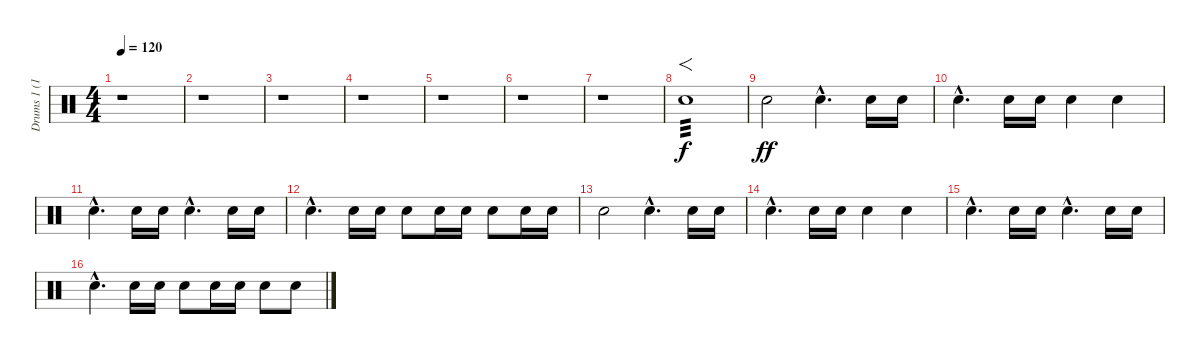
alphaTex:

\track ("Drums 1 (16)" "Drums 1 (1") {instrument percussion}
\staff {score}
\articulation defaults
\ts (4 4)
\tempo 120
\clef neutral
\ks c
r.1{dy f} |
r.1 |
r.1 |
r.1 |
r.1 |
r.1 |
r.1 |
"Snare (hit) 2".1{f tp 3} |
"Hand Clap (hit)".2{dy ff} "Hand Clap (hit)"{hac}.4{d} "Hand Clap (hit)".16 "Hand Clap (hit)".16 |
"Hand Clap (hit)"{hac}.4{d} "Hand Clap (hit)".16 "Hand Clap (hit)".16 "Hand Clap (hit)".4 "Hand Clap (hit)".4 |
"Hand Clap (hit)"{hac}.4{d} "Hand Clap (hit)".16 "Hand Clap (hit)".16 "Hand Clap (hit)"{hac}.4{d} "Hand Clap (hit)".16 "Hand Clap (hit)".16 |
"Hand Clap (hit)"{hac}.4{d} "Hand Clap (hit)".16 "Hand Clap (hit)".16 "Hand Clap (hit)".8 "Hand Clap (hit)".16 "Hand Clap (hit)".16 "Hand Clap (hit)".8 "Hand Clap (hit)".16 "Hand Clap (hit)".16 |
"Hand Clap (hit)".2 "Hand Clap (hit)"{hac}.4{d} "Hand Clap (hit)".16 "Hand Clap (hit)".16 |
"Hand Clap (hit)"{hac}.4{d} "Hand Clap (hit)".16 "Hand Clap (hit)".16 "Hand Clap (hit)".4 "Hand Clap (hit)".4 |
"Hand Clap (hit)"{hac}.4{d} "Hand Clap (hit)".16 "Hand Clap (hit)".16 "Hand Clap (hit)"{hac}.4{d} "Hand Clap (hit)".16 "Hand Clap (hit)".16 |
"Hand Clap (hit)"{hac}.4{d} "Hand Clap (hit)".16 "Hand Clap (hit)".16 "Hand Clap (hit)".8 "Hand Clap (hit)".16 "Hand Clap (hit)".16 "Hand Clap (hit)".8 "Hand Clap (hit)".8
